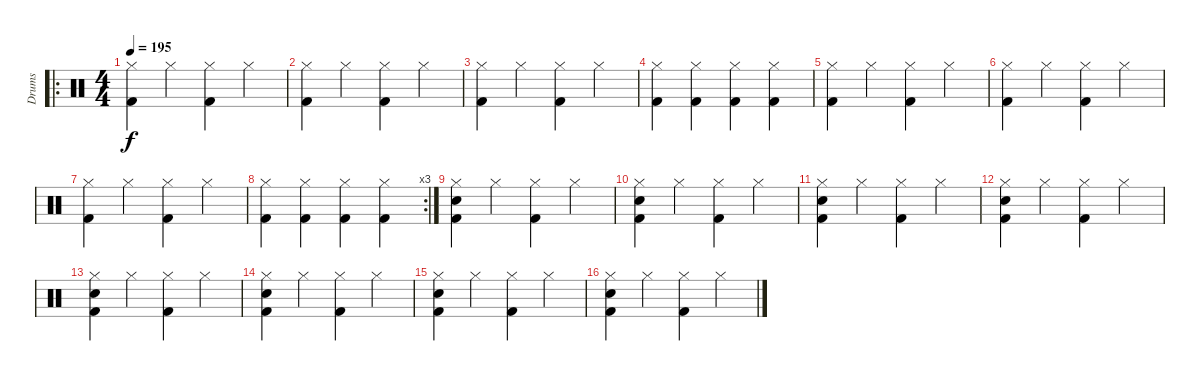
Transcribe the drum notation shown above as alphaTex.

\track ("Drums" "Drums") {instrument percussion}
\staff {score}
\articulation defaults
\ro
\ts (4 4)
\tempo 195
\clef neutral
\ks c
("Hi-Hat (closed)" "Kick (hit) 2").4{dy f} "Hi-Hat (closed)".4 ("Hi-Hat (closed)" "Kick (hit) 2").4 "Hi-Hat (closed)".4 |
("Hi-Hat (closed)" "Kick (hit) 2").4 "Hi-Hat (closed)".4 ("Hi-Hat (closed)" "Kick (hit) 2").4 "Hi-Hat (closed)".4 |
("Hi-Hat (closed)" "Kick (hit) 2").4 "Hi-Hat (closed)".4 ("Hi-Hat (closed)" "Kick (hit) 2").4 "Hi-Hat (closed)".4 |
("Hi-Hat (closed)" "Kick (hit) 2").4 ("Hi-Hat (closed)" "Kick (hit) 2").4 ("Hi-Hat (closed)" "Kick (hit) 2").4 ("Hi-Hat (closed)" "Kick (hit) 2").4 |
("Hi-Hat (closed)" "Kick (hit) 2").4 "Hi-Hat (closed)".4 ("Hi-Hat (closed)" "Kick (hit) 2").4 "Hi-Hat (closed)".4 |
("Hi-Hat (closed)" "Kick (hit) 2").4 "Hi-Hat (closed)".4 ("Hi-Hat (closed)" "Kick (hit) 2").4 "Hi-Hat (closed)".4 |
("Hi-Hat (closed)" "Kick (hit) 2").4 "Hi-Hat (closed)".4 ("Hi-Hat (closed)" "Kick (hit) 2").4 "Hi-Hat (closed)".4 |
\rc 3
("Hi-Hat (closed)" "Kick (hit) 2").4 ("Hi-Hat (closed)" "Kick (hit) 2").4 ("Hi-Hat (closed)" "Kick (hit) 2").4 ("Hi-Hat (closed)" "Kick (hit) 2").4 |
("Electric Snare (hit)" "Hi-Hat (closed)" "Kick (hit) 2").4 "Hi-Hat (closed)".4 ("Hi-Hat (closed)" "Kick (hit) 2").4 "Hi-Hat (closed)".4 |
("Electric Snare (hit)" "Hi-Hat (closed)" "Kick (hit) 2").4 "Hi-Hat (closed)".4 ("Hi-Hat (closed)" "Kick (hit) 2").4 "Hi-Hat (closed)".4 |
("Electric Snare (hit)" "Hi-Hat (closed)" "Kick (hit) 2").4 "Hi-Hat (closed)".4 ("Hi-Hat (closed)" "Kick (hit) 2").4 "Hi-Hat (closed)".4 |
("Electric Snare (hit)" "Hi-Hat (closed)" "Kick (hit) 2").4 "Hi-Hat (closed)".4 ("Hi-Hat (closed)" "Kick (hit) 2").4 "Hi-Hat (closed)".4 |
("Electric Snare (hit)" "Hi-Hat (closed)" "Kick (hit) 2").4 "Hi-Hat (closed)".4 ("Hi-Hat (closed)" "Kick (hit) 2").4 "Hi-Hat (closed)".4 |
("Electric Snare (hit)" "Hi-Hat (closed)" "Kick (hit) 2").4 "Hi-Hat (closed)".4 ("Hi-Hat (closed)" "Kick (hit) 2").4 "Hi-Hat (closed)".4 |
("Electric Snare (hit)" "Hi-Hat (closed)" "Kick (hit) 2").4 "Hi-Hat (closed)".4 ("Hi-Hat (closed)" "Kick (hit) 2").4 "Hi-Hat (closed)".4 |
("Electric Snare (hit)" "Hi-Hat (closed)" "Kick (hit) 2").4 "Hi-Hat (closed)".4 ("Hi-Hat (closed)" "Kick (hit) 2").4 "Hi-Hat (closed)".4
